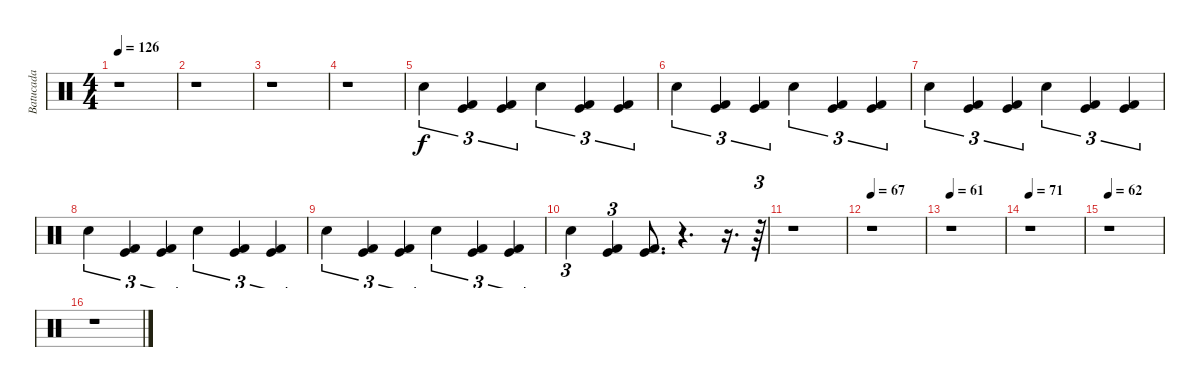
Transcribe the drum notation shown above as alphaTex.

\track ("Batucada" "Batucada") {instrument percussion}
\staff {score}
\articulation defaults
\ts (4 4)
\tempo 126
\clef neutral
\ks c
r.1{dy p} |
r.1 |
r.1 |
r.1 |
"Snare (hit)".4{tu (3 2) dy f} ("Kick (hit) 2" "Kick (hit)").4{tu (3 2)} ("Kick (hit) 2" "Kick (hit)").4{tu (3 2)} "Snare (hit)".4{tu (3 2)} ("Kick (hit) 2" "Kick (hit)").4{tu (3 2)} ("Kick (hit) 2" "Kick (hit)").4{tu (3 2)} |
"Snare (hit)".4{tu (3 2)} ("Kick (hit) 2" "Kick (hit)").4{tu (3 2)} ("Kick (hit) 2" "Kick (hit)").4{tu (3 2)} "Snare (hit)".4{tu (3 2)} ("Kick (hit) 2" "Kick (hit)").4{tu (3 2)} ("Kick (hit) 2" "Kick (hit)").4{tu (3 2)} |
"Snare (hit)".4{tu (3 2)} ("Kick (hit) 2" "Kick (hit)").4{tu (3 2)} ("Kick (hit) 2" "Kick (hit)").4{tu (3 2)} "Snare (hit)".4{tu (3 2)} ("Kick (hit) 2" "Kick (hit)").4{tu (3 2)} ("Kick (hit) 2" "Kick (hit)").4{tu (3 2)} |
"Snare (hit)".4{tu (3 2)} ("Kick (hit) 2" "Kick (hit)").4{tu (3 2)} ("Kick (hit) 2" "Kick (hit)").4{tu (3 2)} "Snare (hit)".4{tu (3 2)} ("Kick (hit) 2" "Kick (hit)").4{tu (3 2)} ("Kick (hit) 2" "Kick (hit)").4{tu (3 2)} |
"Snare (hit)".4{tu (3 2)} ("Kick (hit) 2" "Kick (hit)").4{tu (3 2)} ("Kick (hit) 2" "Kick (hit)").4{tu (3 2)} "Snare (hit)".4{tu (3 2)} ("Kick (hit) 2" "Kick (hit)").4{tu (3 2)} ("Kick (hit) 2" "Kick (hit)").4{tu (3 2)} |
"Snare (hit)".4{tu (3 2)} ("Kick (hit) 2" "Kick (hit)").4{tu (3 2)} ("Kick (hit) 2" "Kick (hit)").8{d} r.4{d} r.16{d} r.64{tu (3 2)} |
r.1 |
\tempo 67
r.1 |
\tempo 61
r.1 |
\tempo 71
r.1 |
\tempo 62
r.1 |
r.1
